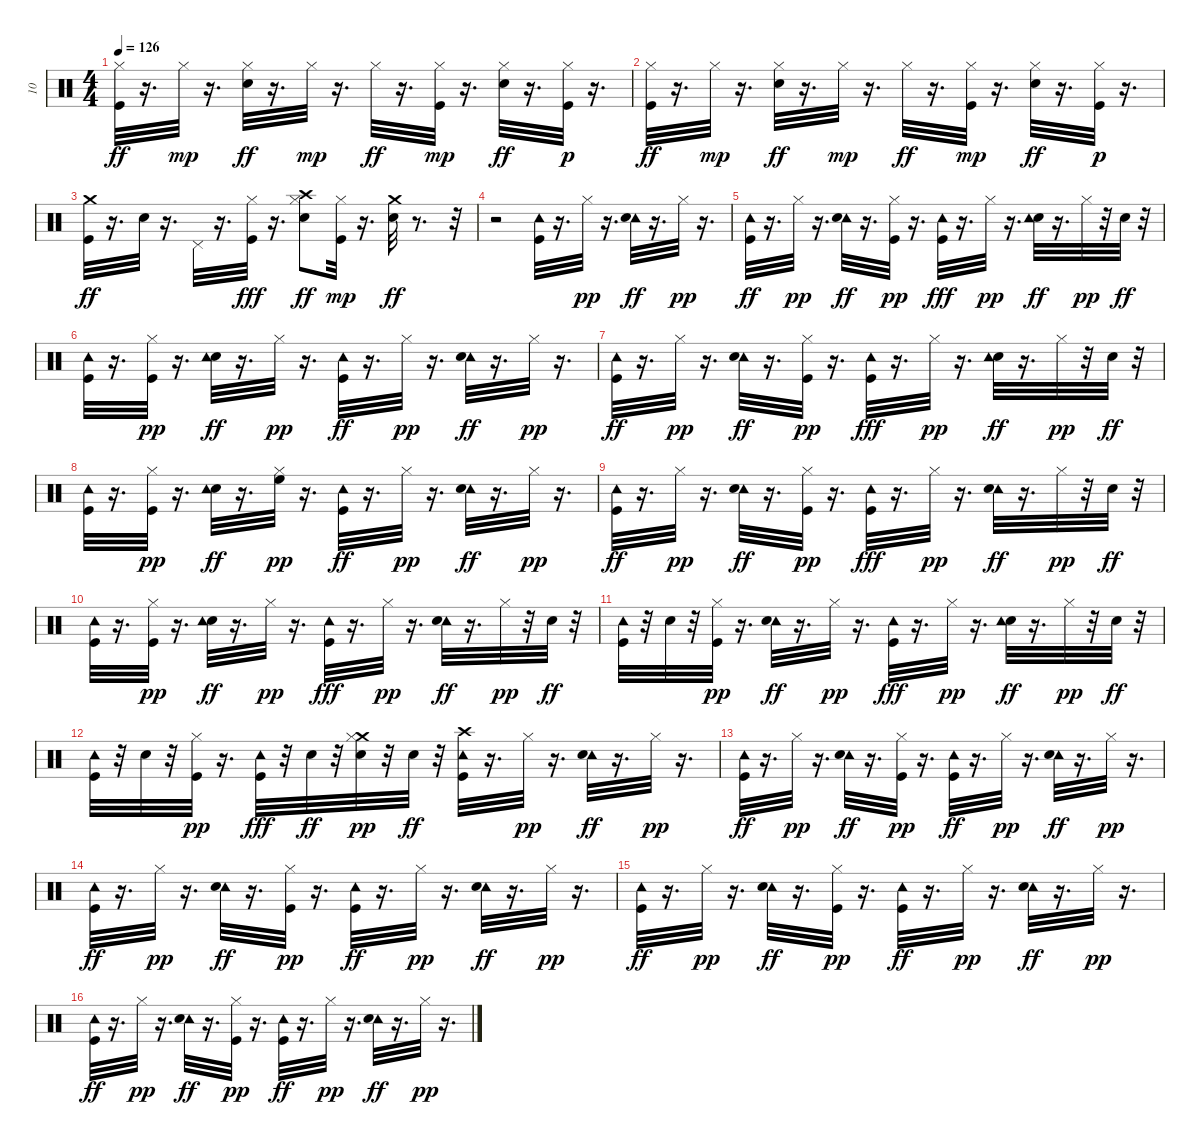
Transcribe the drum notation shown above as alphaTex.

\track ("10" "10") {instrument percussion}
\staff {score}
\articulation defaults
\ts (4 4)
\tempo 126
\clef neutral
\ks c
("Kick (hit)" "Hi-Hat (closed)").32{dy ff} r.16{d} "Hi-Hat (closed)".32{dy mp} r.16{d} ("Hi-Hat (closed)" "Electric Snare (hit)").32{dy ff} r.16{d} "Hi-Hat (closed)".32{dy mp} r.16{d} "Hi-Hat (closed)".32{dy ff} r.16{d} ("Kick (hit)" "Hi-Hat (closed)").32{dy mp} r.16{d} ("Electric Snare (hit)" "Hi-Hat (closed)").32{dy ff} r.16{d} ("Kick (hit)" "Hi-Hat (closed)").32{dy p} r.16{d} |
("Kick (hit)" "Hi-Hat (closed)").32{dy ff} r.16{d} "Hi-Hat (closed)".32{dy mp} r.16{d} ("Hi-Hat (closed)" "Electric Snare (hit)").32{dy ff} r.16{d} "Hi-Hat (closed)".32{dy mp} r.16{d} "Hi-Hat (closed)".32{dy ff} r.16{d} ("Kick (hit)" "Hi-Hat (closed)").32{dy mp} r.16{d} ("Electric Snare (hit)" "Hi-Hat (closed)").32{dy ff} r.16{d} ("Kick (hit)" "Hi-Hat (closed)").32{dy p} r.16{d} |
("Kick (hit)" "Crash medium (hit)").32{dy ff} r.16{d} "Electric Snare (hit)".32 r.16{d} "Pedal Hi-Hat (hit)".32 r.16{d} ("Hi-Hat (closed)" "Kick (hit)").32{dy fff} r.16{d} ("Hi-Hat (closed)" "Electric Snare (hit)" "Crash high (hit)").8{dy ff} ("Kick (hit)" "Hi-Hat (closed)").32{dy mp} r.16{d} ("Electric Snare (hit)" "Crash medium (hit)").32{dy ff} r.8{d} r.32 |
r.2 ("Tambourine (hit)" "Kick (hit)").32 r.16{d} "Hi-Hat (closed)".32{dy pp} r.16{d} ("Tambourine (hit)" "Electric Snare (hit)").32{dy ff} r.16{d} "Hi-Hat (closed)".32{dy pp} r.16{d} |
("Tambourine (hit)" "Kick (hit)").32{dy ff} r.16{d} "Hi-Hat (closed)".32{dy pp} r.16{d} ("Tambourine (hit)" "Electric Snare (hit)").32{dy ff} r.16{d} ("Kick (hit)" "Hi-Hat (closed)").32{dy pp} r.16{d} ("Tambourine (hit)" "Kick (hit)").32{dy fff} r.16{d} "Hi-Hat (closed)".32{dy pp} r.16{d} ("Electric Snare (hit)" "Tambourine (hit)").32{dy ff} r.16{d} "Hi-Hat (closed)".32{dy pp} r.32 "Electric Snare (hit)".32{dy ff} r.32 |
("Tambourine (hit)" "Kick (hit)").32 r.16{d} ("Hi-Hat (closed)" "Kick (hit)").32{dy pp} r.16{d} ("Electric Snare (hit)" "Tambourine (hit)").32{dy ff} r.16{d} "Hi-Hat (closed)".32{dy pp} r.16{d} ("Tambourine (hit)" "Kick (hit)").32{dy ff} r.16{d} "Hi-Hat (closed)".32{dy pp} r.16{d} ("Tambourine (hit)" "Electric Snare (hit)").32{dy ff} r.16{d} "Hi-Hat (closed)".32{dy pp} r.16{d} |
("Kick (hit)" "Tambourine (hit)").32{dy ff} r.16{d} "Hi-Hat (closed)".32{dy pp} r.16{d} ("Tambourine (hit)" "Electric Snare (hit)").32{dy ff} r.16{d} ("Kick (hit)" "Hi-Hat (closed)").32{dy pp} r.16{d} ("Tambourine (hit)" "Kick (hit)").32{dy fff} r.16{d} "Hi-Hat (closed)".32{dy pp} r.16{d} ("Electric Snare (hit)" "Tambourine (hit)").32{dy ff} r.16{d} "Hi-Hat (closed)".32{dy pp} r.32 "Electric Snare (hit)".32{dy ff} r.32 |
("Tambourine (hit)" "Kick (hit)").32 r.16{d} ("Kick (hit)" "Hi-Hat (closed)").32{dy pp} r.16{d} ("Electric Snare (hit)" "Tambourine (hit)").32{dy ff} r.16{d} ("High Floor Tom (hit)" "Hi-Hat (closed)").32{dy pp} r.16{d} ("Tambourine (hit)" "Kick (hit)").32{dy ff} r.16{d} "Hi-Hat (closed)".32{dy pp} r.16{d} ("Tambourine (hit)" "Electric Snare (hit)").32{dy ff} r.16{d} "Hi-Hat (closed)".32{dy pp} r.16{d} |
("Kick (hit)" "Tambourine (hit)").32{dy ff} r.16{d} "Hi-Hat (closed)".32{dy pp} r.16{d} ("Tambourine (hit)" "Electric Snare (hit)").32{dy ff} r.16{d} ("Kick (hit)" "Hi-Hat (closed)").32{dy pp} r.16{d} ("Tambourine (hit)" "Kick (hit)").32{dy fff} r.16{d} "Hi-Hat (closed)".32{dy pp} r.16{d} ("Tambourine (hit)" "Electric Snare (hit)").32{dy ff} r.16{d} "Hi-Hat (closed)".32{dy pp} r.32 "Electric Snare (hit)".32{dy ff} r.32 |
("Tambourine (hit)" "Kick (hit)").32 r.16{d} ("Hi-Hat (closed)" "Kick (hit)").32{dy pp} r.16{d} ("Electric Snare (hit)" "Tambourine (hit)").32{dy ff} r.16{d} "Hi-Hat (closed)".32{dy pp} r.16{d} ("Tambourine (hit)" "Kick (hit)").32{dy fff} r.16{d} "Hi-Hat (closed)".32{dy pp} r.16{d} ("Tambourine (hit)" "Electric Snare (hit)").32{dy ff} r.16{d} "Hi-Hat (closed)".32{dy pp} r.32 "Electric Snare (hit)".32{dy ff} r.32 |
("Tambourine (hit)" "Kick (hit)").32 r.32 "Electric Snare (hit)".32 r.32 ("Kick (hit)" "Hi-Hat (closed)").32{dy pp} r.16{d} ("Tambourine (hit)" "Electric Snare (hit)").32{dy ff} r.16{d} "Hi-Hat (closed)".32{dy pp} r.16{d} ("Tambourine (hit)" "Kick (hit)").32{dy fff} r.16{d} "Hi-Hat (closed)".32{dy pp} r.16{d} ("Electric Snare (hit)" "Tambourine (hit)").32{dy ff} r.16{d} "Hi-Hat (closed)".32{dy pp} r.32 "Electric Snare (hit)".32{dy ff} r.32 |
("Tambourine (hit)" "Kick (hit)").32 r.32 "Electric Snare (hit)".32 r.32 ("Hi-Hat (closed)" "Kick (hit)").32{dy pp} r.16{d} ("Kick (hit)" "Tambourine (hit)").32{dy fff} r.32 "Electric Snare (hit)".32{dy ff} r.32 ("Crash medium (hit)" "Electric Snare (hit)" "Hi-Hat (closed)").32{dy pp} r.32 "Electric Snare (hit)".32{dy ff} r.32 ("Crash high (hit)" "Tambourine (hit)" "Kick (hit)").32 r.16{d} "Hi-Hat (closed)".32{dy pp} r.16{d} ("Tambourine (hit)" "Electric Snare (hit)").32{dy ff} r.16{d} "Hi-Hat (closed)".32{dy pp} r.16{d} |
("Kick (hit)" "Tambourine (hit)").32{dy ff} r.16{d} "Hi-Hat (closed)".32{dy pp} r.16{d} ("Tambourine (hit)" "Electric Snare (hit)").32{dy ff} r.16{d} ("Kick (hit)" "Hi-Hat (closed)").32{dy pp} r.16{d} ("Tambourine (hit)" "Kick (hit)").32{dy ff} r.16{d} "Hi-Hat (closed)".32{dy pp} r.16{d} ("Tambourine (hit)" "Electric Snare (hit)").32{dy ff} r.16{d} "Hi-Hat (closed)".32{dy pp} r.16{d} |
("Tambourine (hit)" "Kick (hit)").32{dy ff} r.16{d} "Hi-Hat (closed)".32{dy pp} r.16{d} ("Tambourine (hit)" "Electric Snare (hit)").32{dy ff} r.16{d} ("Kick (hit)" "Hi-Hat (closed)").32{dy pp} r.16{d} ("Tambourine (hit)" "Kick (hit)").32{dy ff} r.16{d} "Hi-Hat (closed)".32{dy pp} r.16{d} ("Tambourine (hit)" "Electric Snare (hit)").32{dy ff} r.16{d} "Hi-Hat (closed)".32{dy pp} r.16{d} |
("Kick (hit)" "Tambourine (hit)").32{dy ff} r.16{d} "Hi-Hat (closed)".32{dy pp} r.16{d} ("Tambourine (hit)" "Electric Snare (hit)").32{dy ff} r.16{d} ("Kick (hit)" "Hi-Hat (closed)").32{dy pp} r.16{d} ("Tambourine (hit)" "Kick (hit)").32{dy ff} r.16{d} "Hi-Hat (closed)".32{dy pp} r.16{d} ("Tambourine (hit)" "Electric Snare (hit)").32{dy ff} r.16{d} "Hi-Hat (closed)".32{dy pp} r.16{d} |
("Kick (hit)" "Tambourine (hit)").32{dy ff} r.16{d} "Hi-Hat (closed)".32{dy pp} r.16{d} ("Tambourine (hit)" "Electric Snare (hit)").32{dy ff} r.16{d} ("Kick (hit)" "Hi-Hat (closed)").32{dy pp} r.16{d} ("Tambourine (hit)" "Kick (hit)").32{dy ff} r.16{d} "Hi-Hat (closed)".32{dy pp} r.16{d} ("Tambourine (hit)" "Electric Snare (hit)").32{dy ff} r.16{d} "Hi-Hat (closed)".32{dy pp} r.16{d}
